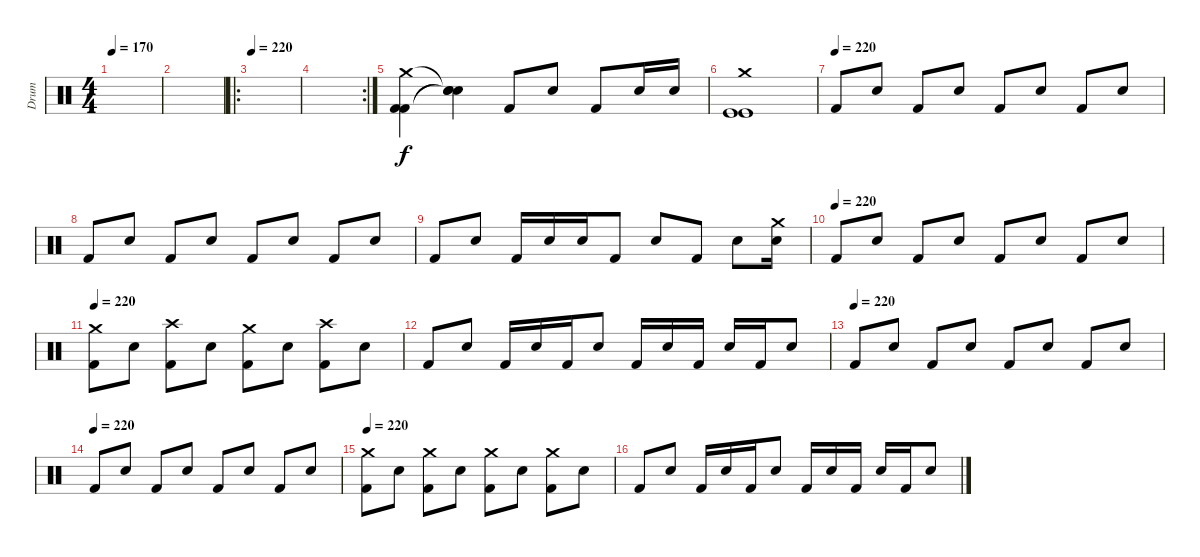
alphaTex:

\track ("Drum" "Drum") {instrument percussion}
\staff {score}
\articulation defaults
\ts (4 4)
\tempo 170
\clef neutral
\ks c
|
|
\ro
\tempo 220
|
\rc 2
|
("Crash medium (hit)" "Kick (hit) 2" "Kick (hit) 2").4 ("Snare (hit)"{t} "Snare (hit)"{t} "Snare (hit)"{t}).4 "Kick (hit) 2".8 "Snare (hit) 2".8 "Kick (hit) 2".8 "Snare (hit) 2".16 "Snare (hit) 2".16 |
("Crash medium (hit)" "Kick (hit)" "Kick (hit)").1 |
\tempo (220)
"Kick (hit) 2".8 "Snare (hit) 2".8 "Kick (hit) 2".8 "Snare (hit) 2".8 "Kick (hit) 2".8 "Snare (hit) 2".8 "Kick (hit) 2".8 "Snare (hit) 2".8 |
"Kick (hit) 2".8 "Snare (hit) 2".8 "Kick (hit) 2".8 "Snare (hit) 2".8 "Kick (hit) 2".8 "Snare (hit) 2".8 "Kick (hit) 2".8 "Snare (hit) 2".8 |
"Kick (hit) 2".8 "Snare (hit) 2".8 "Kick (hit) 2".16 "Snare (hit) 2".16 "Snare (hit) 2".16 "Kick (hit) 2".8 "Snare (hit) 2".8 "Kick (hit) 2".8 "Snare (hit) 2".8 ("Crash medium (hit)" "Snare (hit) 2").16 |
\tempo (220)
"Kick (hit) 2".8 "Snare (hit) 2".8 "Kick (hit) 2".8 "Snare (hit) 2".8 "Kick (hit) 2".8 "Snare (hit) 2".8 "Kick (hit) 2".8 "Snare (hit) 2".8 |
\tempo 220
("Crash medium (hit)" "Kick (hit) 2").8 "Snare (hit) 2".8 ("Crash high (hit)" "Kick (hit) 2").8 "Snare (hit) 2".8 ("Crash medium (hit)" "Kick (hit) 2").8 "Snare (hit) 2".8 ("Crash high (hit)" "Kick (hit) 2").8 "Snare (hit) 2".8 |
"Kick (hit) 2".8 "Snare (hit) 2".8 "Kick (hit) 2".16 "Snare (hit) 2".16 "Kick (hit) 2".16 "Snare (hit) 2".8 "Kick (hit) 2".16 "Snare (hit) 2".16 "Kick (hit) 2".16 "Snare (hit) 2".16 "Kick (hit) 2".16 "Snare (hit) 2".8 |
\tempo (220)
"Kick (hit) 2".8 "Snare (hit) 2".8 "Kick (hit) 2".8 "Snare (hit) 2".8 "Kick (hit) 2".8 "Snare (hit) 2".8 "Kick (hit) 2".8 "Snare (hit) 2".8 |
\tempo (220)
"Kick (hit) 2".8 "Snare (hit) 2".8 "Kick (hit) 2".8 "Snare (hit) 2".8 "Kick (hit) 2".8 "Snare (hit) 2".8 "Kick (hit) 2".8 "Snare (hit) 2".8 |
\tempo 220
("Crash medium (hit)" "Kick (hit) 2").8 "Snare (hit) 2".8 ("Crash medium (hit)" "Kick (hit) 2").8 "Snare (hit) 2".8 ("Crash medium (hit)" "Kick (hit) 2").8 "Snare (hit) 2".8 ("Crash medium (hit)" "Kick (hit) 2").8 "Snare (hit) 2".8 |
"Kick (hit) 2".8 "Snare (hit) 2".8 "Kick (hit) 2".16 "Snare (hit) 2".16 "Kick (hit) 2".16 "Snare (hit) 2".8 "Kick (hit) 2".16 "Snare (hit) 2".16 "Kick (hit) 2".16 "Snare (hit) 2".16 "Kick (hit) 2".16 "Snare (hit) 2".8
